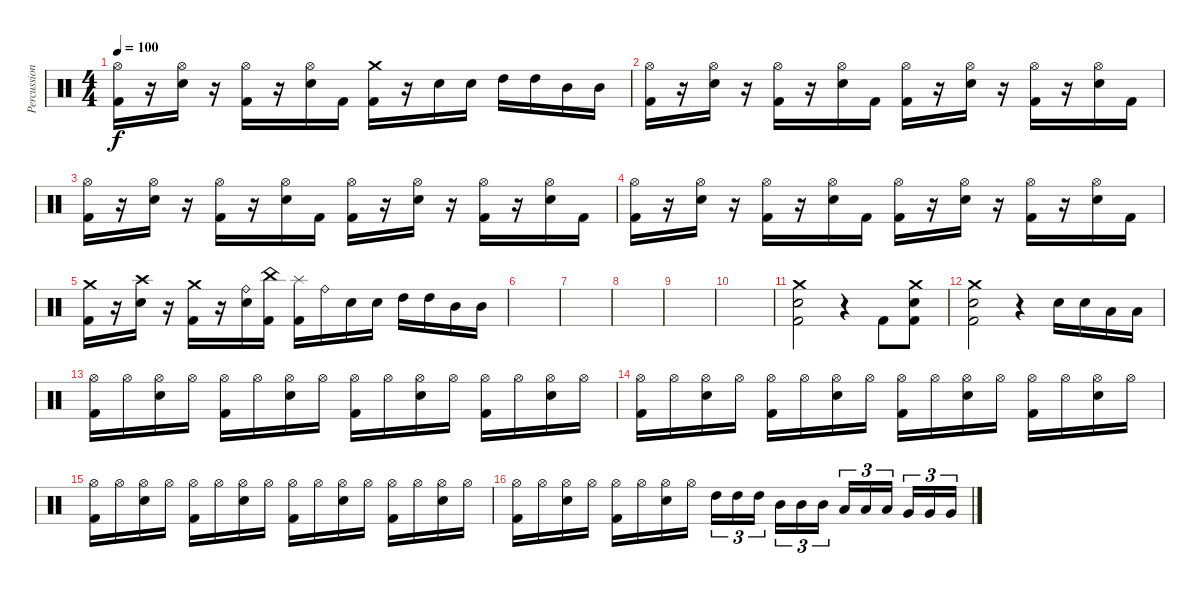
\track ("Percussions" "Percussion") {instrument percussion}
\staff {score}
\articulation defaults
\ts (4 4)
\tempo 100
\clef neutral
\ks c
("Hi-Hat (open)" "Kick (hit) 2").16{dy f} r.16 ("Hi-Hat (open)" "Electric Snare (hit)").16 r.16 ("Hi-Hat (open)" "Kick (hit) 2").16 r.16 ("Hi-Hat (open)" "Electric Snare (hit)").16 "Kick (hit) 2".16 ("Crash medium (hit)" "Kick (hit) 2").16 r.16 "Electric Snare (hit)".16 "Electric Snare (hit)".16 "High Tom (hit)".16 "High Tom (hit)".16 "Mid Tom (hit)".16 "Mid Tom (hit)".16 |
("Hi-Hat (open)" "Kick (hit) 2").16 r.16 ("Hi-Hat (open)" "Electric Snare (hit)").16 r.16 ("Hi-Hat (open)" "Kick (hit) 2").16 r.16 ("Hi-Hat (open)" "Electric Snare (hit)").16 "Kick (hit) 2".16 ("Hi-Hat (open)" "Kick (hit) 2").16 r.16 ("Hi-Hat (open)" "Electric Snare (hit)").16 r.16 ("Hi-Hat (open)" "Kick (hit) 2").16 r.16 ("Hi-Hat (open)" "Electric Snare (hit)").16 "Kick (hit) 2".16 |
("Hi-Hat (open)" "Kick (hit) 2").16 r.16 ("Hi-Hat (open)" "Electric Snare (hit)").16 r.16 ("Hi-Hat (open)" "Kick (hit) 2").16 r.16 ("Hi-Hat (open)" "Electric Snare (hit)").16 "Kick (hit) 2".16 ("Hi-Hat (open)" "Kick (hit) 2").16 r.16 ("Hi-Hat (open)" "Electric Snare (hit)").16 r.16 ("Hi-Hat (open)" "Kick (hit) 2").16 r.16 ("Hi-Hat (open)" "Electric Snare (hit)").16 "Kick (hit) 2".16 |
("Hi-Hat (open)" "Kick (hit) 2").16 r.16 ("Hi-Hat (open)" "Electric Snare (hit)").16 r.16 ("Hi-Hat (open)" "Kick (hit) 2").16 r.16 ("Hi-Hat (open)" "Electric Snare (hit)").16 "Kick (hit) 2".16 ("Hi-Hat (open)" "Kick (hit) 2").16 r.16 ("Hi-Hat (open)" "Electric Snare (hit)").16 r.16 ("Hi-Hat (open)" "Kick (hit) 2").16 r.16 ("Hi-Hat (open)" "Electric Snare (hit)").16 "Kick (hit) 2".16 |
("Crash medium (hit)" "Kick (hit) 2").16 r.16 ("Crash high (hit)" "Electric Snare (hit)").16 r.16 ("Crash medium (hit)" "Kick (hit) 2").16 r.16 ("Ride (bell)" "Electric Snare (hit)").16 ("China (hit)" "Kick (hit) 2").16 ("Splash (hit)" "Kick (hit) 2").16 "Ride (bell)".16 "Electric Snare (hit)".16 "Electric Snare (hit)".16 "High Tom (hit)".16 "High Tom (hit)".16 "Mid Tom (hit)".16 "Mid Tom (hit)".16 |
|
|
|
|
|
("Crash medium (hit)" "Electric Snare (hit)" "Kick (hit) 2").2 r.4 "Kick (hit) 2".8 ("Crash medium (hit)" "Electric Snare (hit)" "Kick (hit) 2").8 |
("Crash medium (hit)" "Electric Snare (hit)" "Kick (hit) 2").2 r.4 "Electric Snare (hit)".16 "Electric Snare (hit)".16 "Low Tom (hit)".16 "Low Tom (hit)".16 |
("Hi-Hat (open)" "Kick (hit) 2").16 "Hi-Hat (open)".16 ("Hi-Hat (open)" "Electric Snare (hit)").16 "Hi-Hat (open)".16 ("Hi-Hat (open)" "Kick (hit) 2").16 "Hi-Hat (open)".16 ("Hi-Hat (open)" "Electric Snare (hit)").16 "Hi-Hat (open)".16 ("Hi-Hat (open)" "Kick (hit) 2").16 "Hi-Hat (open)".16 ("Hi-Hat (open)" "Electric Snare (hit)").16 "Hi-Hat (open)".16 ("Hi-Hat (open)" "Kick (hit) 2").16 "Hi-Hat (open)".16 ("Hi-Hat (open)" "Electric Snare (hit)").16 "Hi-Hat (open)".16 |
("Hi-Hat (open)" "Kick (hit) 2").16 "Hi-Hat (open)".16 ("Hi-Hat (open)" "Electric Snare (hit)").16 "Hi-Hat (open)".16 ("Hi-Hat (open)" "Kick (hit) 2").16 "Hi-Hat (open)".16 ("Hi-Hat (open)" "Electric Snare (hit)").16 "Hi-Hat (open)".16 ("Hi-Hat (open)" "Kick (hit) 2").16 "Hi-Hat (open)".16 ("Hi-Hat (open)" "Electric Snare (hit)").16 "Hi-Hat (open)".16 ("Hi-Hat (open)" "Kick (hit) 2").16 "Hi-Hat (open)".16 ("Hi-Hat (open)" "Electric Snare (hit)").16 "Hi-Hat (open)".16 |
("Hi-Hat (open)" "Kick (hit) 2").16 "Hi-Hat (open)".16 ("Hi-Hat (open)" "Electric Snare (hit)").16 "Hi-Hat (open)".16 ("Hi-Hat (open)" "Kick (hit) 2").16 "Hi-Hat (open)".16 ("Hi-Hat (open)" "Electric Snare (hit)").16 "Hi-Hat (open)".16 ("Hi-Hat (open)" "Kick (hit) 2").16 "Hi-Hat (open)".16 ("Hi-Hat (open)" "Electric Snare (hit)").16 "Hi-Hat (open)".16 ("Hi-Hat (open)" "Kick (hit) 2").16 "Hi-Hat (open)".16 ("Hi-Hat (open)" "Electric Snare (hit)").16 "Hi-Hat (open)".16 |
("Hi-Hat (open)" "Kick (hit) 2").16 "Hi-Hat (open)".16 ("Hi-Hat (open)" "Electric Snare (hit)").16 "Hi-Hat (open)".16 ("Hi-Hat (open)" "Kick (hit) 2").16 "Hi-Hat (open)".16 ("Hi-Hat (open)" "Electric Snare (hit)").16 "Hi-Hat (open)".16 "High Tom (hit)".16{tu (3 2)} "High Tom (hit)".16{tu (3 2)} "High Tom (hit)".16{tu (3 2)} "Mid Tom (hit)".16{tu (3 2)} "Mid Tom (hit)".16{tu (3 2)} "Mid Tom (hit)".16{tu (3 2)} "Low Tom (hit)".16{tu (3 2)} "Low Tom (hit)".16{tu (3 2)} "Low Tom (hit)".16{tu (3 2)} "Very Low Tom (hit)".16{tu (3 2)} "Very Low Tom (hit)".16{tu (3 2)} "Very Low Tom (hit)".16{tu (3 2)}
